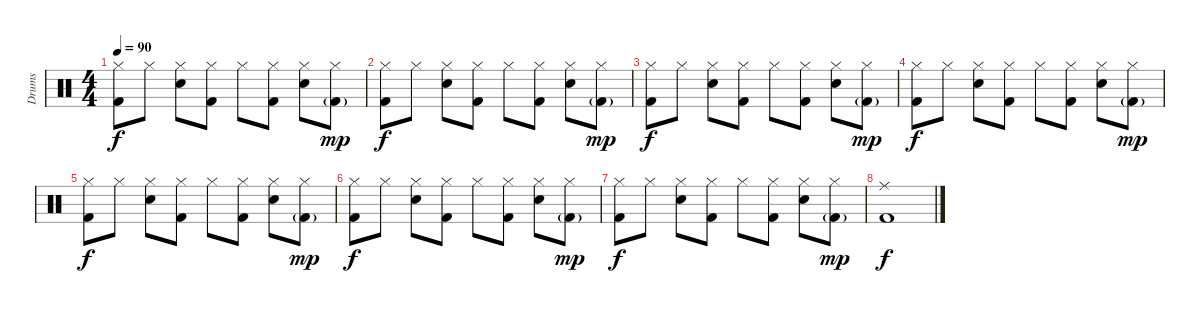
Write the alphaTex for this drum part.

\track ("Drums" "Drums") {instrument percussion}
\staff {score}
\articulation defaults
\ts (4 4)
\tempo 90
\clef neutral
\ks c
("Hi-Hat (closed)" "Kick (hit) 2").8{dy f} "Hi-Hat (closed)".8 ("Hi-Hat (closed)" "Snare (hit) 2").8 ("Hi-Hat (closed)" "Kick (hit) 2").8 "Hi-Hat (closed)".8 ("Hi-Hat (closed)" "Kick (hit) 2").8 ("Hi-Hat (closed)" "Snare (hit) 2").8 ("Hi-Hat (closed)" "Kick (hit) 2"{g}).8{dy mp} |
("Hi-Hat (closed)" "Kick (hit) 2").8{dy f} "Hi-Hat (closed)".8 ("Hi-Hat (closed)" "Snare (hit) 2").8 ("Hi-Hat (closed)" "Kick (hit) 2").8 "Hi-Hat (closed)".8 ("Hi-Hat (closed)" "Kick (hit) 2").8 ("Hi-Hat (closed)" "Snare (hit) 2").8 ("Hi-Hat (closed)" "Kick (hit) 2"{g}).8{dy mp} |
("Hi-Hat (closed)" "Kick (hit) 2").8{dy f} "Hi-Hat (closed)".8 ("Hi-Hat (closed)" "Snare (hit) 2").8 ("Hi-Hat (closed)" "Kick (hit) 2").8 "Hi-Hat (closed)".8 ("Hi-Hat (closed)" "Kick (hit) 2").8 ("Hi-Hat (closed)" "Snare (hit) 2").8 ("Hi-Hat (closed)" "Kick (hit) 2"{g}).8{dy mp} |
("Hi-Hat (closed)" "Kick (hit) 2").8{dy f} "Hi-Hat (closed)".8 ("Hi-Hat (closed)" "Snare (hit) 2").8 ("Hi-Hat (closed)" "Kick (hit) 2").8 "Hi-Hat (closed)".8 ("Hi-Hat (closed)" "Kick (hit) 2").8 ("Hi-Hat (closed)" "Snare (hit) 2").8 ("Hi-Hat (closed)" "Kick (hit) 2"{g}).8{dy mp} |
("Hi-Hat (closed)" "Kick (hit) 2").8{dy f} "Hi-Hat (closed)".8 ("Hi-Hat (closed)" "Snare (hit) 2").8 ("Hi-Hat (closed)" "Kick (hit) 2").8 "Hi-Hat (closed)".8 ("Hi-Hat (closed)" "Kick (hit) 2").8 ("Hi-Hat (closed)" "Snare (hit) 2").8 ("Hi-Hat (closed)" "Kick (hit) 2"{g}).8{dy mp} |
("Hi-Hat (closed)" "Kick (hit) 2").8{dy f} "Hi-Hat (closed)".8 ("Hi-Hat (closed)" "Snare (hit) 2").8 ("Hi-Hat (closed)" "Kick (hit) 2").8 "Hi-Hat (closed)".8 ("Hi-Hat (closed)" "Kick (hit) 2").8 ("Hi-Hat (closed)" "Snare (hit) 2").8 ("Hi-Hat (closed)" "Kick (hit) 2"{g}).8{dy mp} |
("Hi-Hat (closed)" "Kick (hit) 2").8{dy f} "Hi-Hat (closed)".8 ("Hi-Hat (closed)" "Snare (hit) 2").8 ("Hi-Hat (closed)" "Kick (hit) 2").8 "Hi-Hat (closed)".8 ("Hi-Hat (closed)" "Kick (hit) 2").8 ("Hi-Hat (closed)" "Snare (hit) 2").8 ("Hi-Hat (closed)" "Kick (hit) 2"{g}).8{dy mp} |
("Ride (middle)" "Kick (hit) 2").1{dy f}
